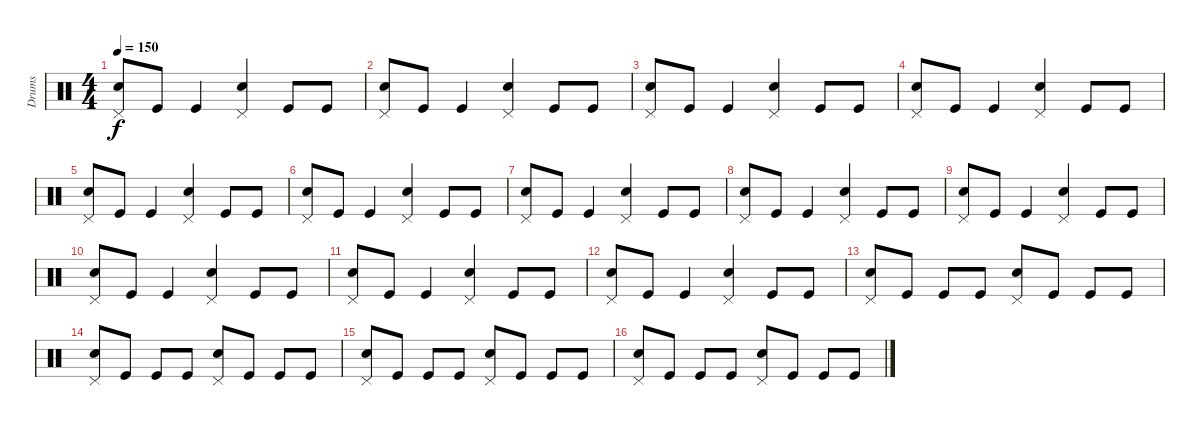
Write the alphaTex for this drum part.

\track ("Drums" "Drums") {instrument percussion}
\staff {score}
\articulation defaults
\ts (4 4)
\tempo 150
\clef neutral
\ks c
("Snare (hit) 2" "Pedal Hi-Hat (hit)").8{dy f} "Kick (hit)".8 "Kick (hit)".4 ("Snare (hit) 2" "Pedal Hi-Hat (hit)").4 "Kick (hit)".8 "Kick (hit)".8 |
("Snare (hit) 2" "Pedal Hi-Hat (hit)").8 "Kick (hit)".8 "Kick (hit)".4 ("Snare (hit) 2" "Pedal Hi-Hat (hit)").4 "Kick (hit)".8 "Kick (hit)".8 |
("Snare (hit) 2" "Pedal Hi-Hat (hit)").8 "Kick (hit)".8 "Kick (hit)".4 ("Snare (hit) 2" "Pedal Hi-Hat (hit)").4 "Kick (hit)".8 "Kick (hit)".8 |
("Snare (hit) 2" "Pedal Hi-Hat (hit)").8 "Kick (hit)".8 "Kick (hit)".4 ("Snare (hit) 2" "Pedal Hi-Hat (hit)").4 "Kick (hit)".8 "Kick (hit)".8 |
("Snare (hit) 2" "Pedal Hi-Hat (hit)").8 "Kick (hit)".8 "Kick (hit)".4 ("Snare (hit) 2" "Pedal Hi-Hat (hit)").4 "Kick (hit)".8 "Kick (hit)".8 |
("Snare (hit) 2" "Pedal Hi-Hat (hit)").8 "Kick (hit)".8 "Kick (hit)".4 ("Snare (hit) 2" "Pedal Hi-Hat (hit)").4 "Kick (hit)".8 "Kick (hit)".8 |
("Snare (hit) 2" "Pedal Hi-Hat (hit)").8 "Kick (hit)".8 "Kick (hit)".4 ("Snare (hit) 2" "Pedal Hi-Hat (hit)").4 "Kick (hit)".8 "Kick (hit)".8 |
("Snare (hit) 2" "Pedal Hi-Hat (hit)").8 "Kick (hit)".8 "Kick (hit)".4 ("Snare (hit) 2" "Pedal Hi-Hat (hit)").4 "Kick (hit)".8 "Kick (hit)".8 |
("Snare (hit) 2" "Pedal Hi-Hat (hit)").8 "Kick (hit)".8 "Kick (hit)".4 ("Snare (hit) 2" "Pedal Hi-Hat (hit)").4 "Kick (hit)".8 "Kick (hit)".8 |
("Snare (hit) 2" "Pedal Hi-Hat (hit)").8 "Kick (hit)".8 "Kick (hit)".4 ("Snare (hit) 2" "Pedal Hi-Hat (hit)").4 "Kick (hit)".8 "Kick (hit)".8 |
("Snare (hit) 2" "Pedal Hi-Hat (hit)").8 "Kick (hit)".8 "Kick (hit)".4 ("Snare (hit) 2" "Pedal Hi-Hat (hit)").4 "Kick (hit)".8 "Kick (hit)".8 |
("Snare (hit) 2" "Pedal Hi-Hat (hit)").8 "Kick (hit)".8 "Kick (hit)".4 ("Snare (hit) 2" "Pedal Hi-Hat (hit)").4 "Kick (hit)".8 "Kick (hit)".8 |
("Snare (hit) 2" "Pedal Hi-Hat (hit)").8 "Kick (hit)".8 "Kick (hit)".8 "Kick (hit)".8 ("Snare (hit) 2" "Pedal Hi-Hat (hit)").8 "Kick (hit)".8 "Kick (hit)".8 "Kick (hit)".8 |
("Snare (hit) 2" "Pedal Hi-Hat (hit)").8 "Kick (hit)".8 "Kick (hit)".8 "Kick (hit)".8 ("Snare (hit) 2" "Pedal Hi-Hat (hit)").8 "Kick (hit)".8 "Kick (hit)".8 "Kick (hit)".8 |
("Snare (hit) 2" "Pedal Hi-Hat (hit)").8 "Kick (hit)".8 "Kick (hit)".8 "Kick (hit)".8 ("Snare (hit) 2" "Pedal Hi-Hat (hit)").8 "Kick (hit)".8 "Kick (hit)".8 "Kick (hit)".8 |
("Snare (hit) 2" "Pedal Hi-Hat (hit)").8 "Kick (hit)".8 "Kick (hit)".8 "Kick (hit)".8 ("Snare (hit) 2" "Pedal Hi-Hat (hit)").8 "Kick (hit)".8 "Kick (hit)".8 "Kick (hit)".8
